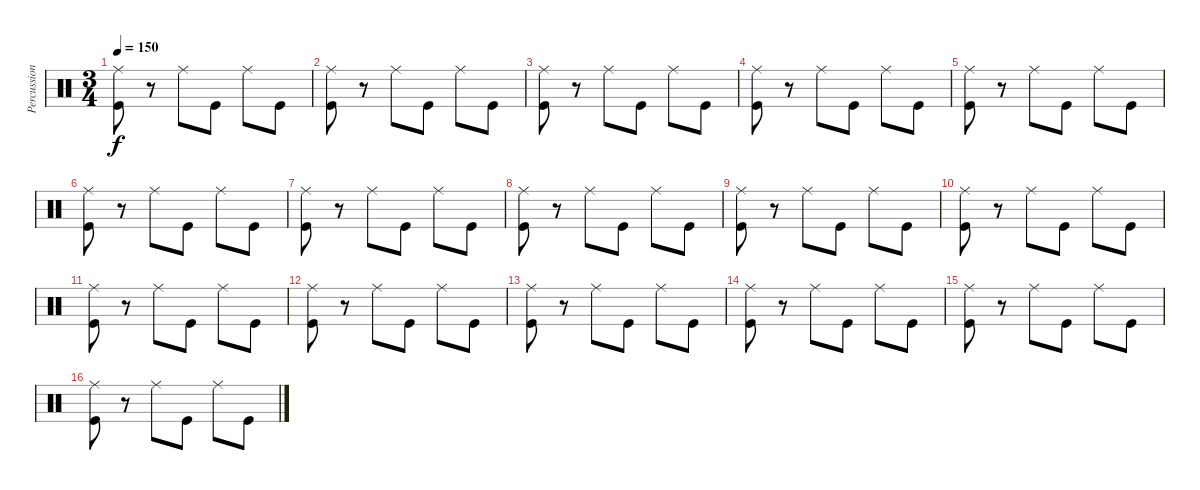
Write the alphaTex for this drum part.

\track ("Percussion" "Percussion") {instrument percussion}
\staff {score}
\articulation defaults
\ts (3 4)
\tempo 150
\clef neutral
\ks c
("Ride (middle)" "Kick (hit)").8{dy f} r.8 "Ride (middle)".8 "Kick (hit)".8 "Ride (middle)".8 "Kick (hit)".8 |
("Ride (middle)" "Kick (hit)").8 r.8 "Ride (middle)".8 "Kick (hit)".8 "Ride (middle)".8 "Kick (hit)".8 |
("Ride (middle)" "Kick (hit)").8 r.8 "Ride (middle)".8 "Kick (hit)".8 "Ride (middle)".8 "Kick (hit)".8 |
("Ride (middle)" "Kick (hit)").8 r.8 "Ride (middle)".8 "Kick (hit)".8 "Ride (middle)".8 "Kick (hit)".8 |
("Ride (middle)" "Kick (hit)").8 r.8 "Ride (middle)".8 "Kick (hit)".8 "Ride (middle)".8 "Kick (hit)".8 |
("Ride (middle)" "Kick (hit)").8 r.8 "Ride (middle)".8 "Kick (hit)".8 "Ride (middle)".8 "Kick (hit)".8 |
("Ride (middle)" "Kick (hit)").8 r.8 "Ride (middle)".8 "Kick (hit)".8 "Ride (middle)".8 "Kick (hit)".8 |
("Ride (middle)" "Kick (hit)").8 r.8 "Ride (middle)".8 "Kick (hit)".8 "Ride (middle)".8 "Kick (hit)".8 |
("Ride (middle)" "Kick (hit)").8 r.8 "Ride (middle)".8 "Kick (hit)".8 "Ride (middle)".8 "Kick (hit)".8 |
("Ride (middle)" "Kick (hit)").8 r.8 "Ride (middle)".8 "Kick (hit)".8 "Ride (middle)".8 "Kick (hit)".8 |
("Ride (middle)" "Kick (hit)").8 r.8 "Ride (middle)".8 "Kick (hit)".8 "Ride (middle)".8 "Kick (hit)".8 |
("Ride (middle)" "Kick (hit)").8 r.8 "Ride (middle)".8 "Kick (hit)".8 "Ride (middle)".8 "Kick (hit)".8 |
("Ride (middle)" "Kick (hit)").8 r.8 "Ride (middle)".8 "Kick (hit)".8 "Ride (middle)".8 "Kick (hit)".8 |
("Ride (middle)" "Kick (hit)").8 r.8 "Ride (middle)".8 "Kick (hit)".8 "Ride (middle)".8 "Kick (hit)".8 |
("Ride (middle)" "Kick (hit)").8 r.8 "Ride (middle)".8 "Kick (hit)".8 "Ride (middle)".8 "Kick (hit)".8 |
("Ride (middle)" "Kick (hit)").8 r.8 "Ride (middle)".8 "Kick (hit)".8 "Ride (middle)".8 "Kick (hit)".8
